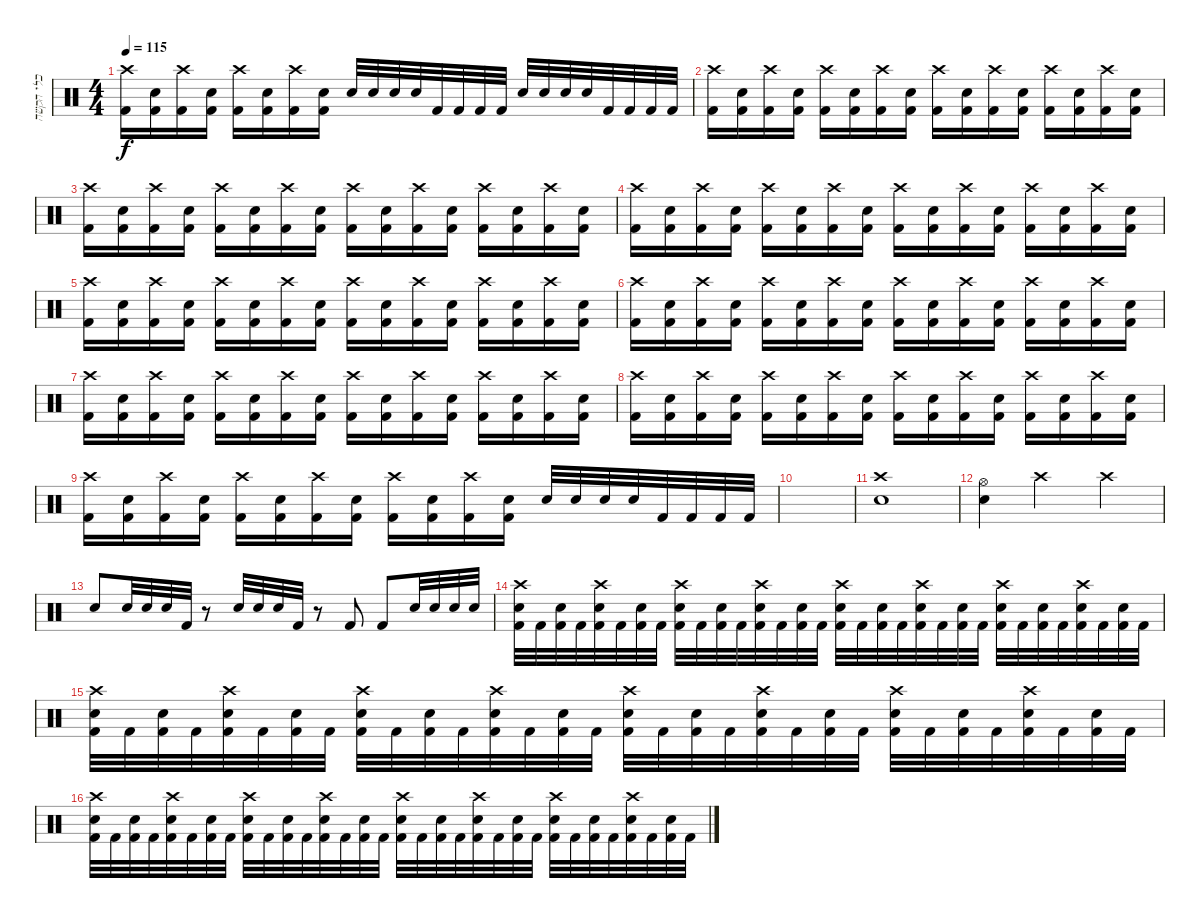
\track ("כלי הקשה" "כלי הקשה") {instrument percussion}
\staff {score}
\articulation defaults
\ts (4 4)
\tempo 115
\clef neutral
\ks c
("Crash high (hit)" "Kick (hit) 2").16{dy f} ("Snare (hit) 2" "Kick (hit) 2").16 ("Crash high (hit)" "Kick (hit) 2").16 ("Snare (hit) 2" "Kick (hit) 2").16 ("Crash high (hit)" "Kick (hit) 2").16 ("Snare (hit) 2" "Kick (hit) 2").16 ("Crash high (hit)" "Kick (hit) 2").16 ("Snare (hit) 2" "Kick (hit) 2").16 "Snare (hit) 2".32 "Snare (hit) 2".32 "Snare (hit) 2".32 "Snare (hit) 2".32 "Kick (hit) 2".32 "Kick (hit) 2".32 "Kick (hit) 2".32 "Kick (hit) 2".32 "Snare (hit) 2".32 "Snare (hit) 2".32 "Snare (hit) 2".32 "Snare (hit) 2".32 "Kick (hit) 2".32 "Kick (hit) 2".32 "Kick (hit) 2".32 "Kick (hit) 2".32 |
("Crash high (hit)" "Kick (hit) 2").16 ("Snare (hit) 2" "Kick (hit) 2").16 ("Crash high (hit)" "Kick (hit) 2").16 ("Snare (hit) 2" "Kick (hit) 2").16 ("Crash high (hit)" "Kick (hit) 2").16 ("Snare (hit) 2" "Kick (hit) 2").16 ("Crash high (hit)" "Kick (hit) 2").16 ("Snare (hit) 2" "Kick (hit) 2").16 ("Crash high (hit)" "Kick (hit) 2").16 ("Snare (hit) 2" "Kick (hit) 2").16 ("Crash high (hit)" "Kick (hit) 2").16 ("Snare (hit) 2" "Kick (hit) 2").16 ("Crash high (hit)" "Kick (hit) 2").16 ("Snare (hit) 2" "Kick (hit) 2").16 ("Crash high (hit)" "Kick (hit) 2").16 ("Snare (hit) 2" "Kick (hit) 2").16 |
("Crash high (hit)" "Kick (hit) 2").16 ("Snare (hit) 2" "Kick (hit) 2").16 ("Crash high (hit)" "Kick (hit) 2").16 ("Snare (hit) 2" "Kick (hit) 2").16 ("Crash high (hit)" "Kick (hit) 2").16 ("Snare (hit) 2" "Kick (hit) 2").16 ("Crash high (hit)" "Kick (hit) 2").16 ("Snare (hit) 2" "Kick (hit) 2").16 ("Crash high (hit)" "Kick (hit) 2").16 ("Snare (hit) 2" "Kick (hit) 2").16 ("Crash high (hit)" "Kick (hit) 2").16 ("Snare (hit) 2" "Kick (hit) 2").16 ("Crash high (hit)" "Kick (hit) 2").16 ("Snare (hit) 2" "Kick (hit) 2").16 ("Crash high (hit)" "Kick (hit) 2").16 ("Snare (hit) 2" "Kick (hit) 2").16 |
("Crash high (hit)" "Kick (hit) 2").16 ("Snare (hit) 2" "Kick (hit) 2").16 ("Crash high (hit)" "Kick (hit) 2").16 ("Snare (hit) 2" "Kick (hit) 2").16 ("Crash high (hit)" "Kick (hit) 2").16 ("Snare (hit) 2" "Kick (hit) 2").16 ("Crash high (hit)" "Kick (hit) 2").16 ("Snare (hit) 2" "Kick (hit) 2").16 ("Crash high (hit)" "Kick (hit) 2").16 ("Snare (hit) 2" "Kick (hit) 2").16 ("Crash high (hit)" "Kick (hit) 2").16 ("Snare (hit) 2" "Kick (hit) 2").16 ("Crash high (hit)" "Kick (hit) 2").16 ("Snare (hit) 2" "Kick (hit) 2").16 ("Crash high (hit)" "Kick (hit) 2").16 ("Snare (hit) 2" "Kick (hit) 2").16 |
("Crash high (hit)" "Kick (hit) 2").16 ("Snare (hit) 2" "Kick (hit) 2").16 ("Crash high (hit)" "Kick (hit) 2").16 ("Snare (hit) 2" "Kick (hit) 2").16 ("Crash high (hit)" "Kick (hit) 2").16 ("Snare (hit) 2" "Kick (hit) 2").16 ("Crash high (hit)" "Kick (hit) 2").16 ("Snare (hit) 2" "Kick (hit) 2").16 ("Crash high (hit)" "Kick (hit) 2").16 ("Snare (hit) 2" "Kick (hit) 2").16 ("Crash high (hit)" "Kick (hit) 2").16 ("Snare (hit) 2" "Kick (hit) 2").16 ("Crash high (hit)" "Kick (hit) 2").16 ("Snare (hit) 2" "Kick (hit) 2").16 ("Crash high (hit)" "Kick (hit) 2").16 ("Snare (hit) 2" "Kick (hit) 2").16 |
("Crash high (hit)" "Kick (hit) 2").16 ("Snare (hit) 2" "Kick (hit) 2").16 ("Crash high (hit)" "Kick (hit) 2").16 ("Snare (hit) 2" "Kick (hit) 2").16 ("Crash high (hit)" "Kick (hit) 2").16 ("Snare (hit) 2" "Kick (hit) 2").16 ("Crash high (hit)" "Kick (hit) 2").16 ("Snare (hit) 2" "Kick (hit) 2").16 ("Crash high (hit)" "Kick (hit) 2").16 ("Snare (hit) 2" "Kick (hit) 2").16 ("Crash high (hit)" "Kick (hit) 2").16 ("Snare (hit) 2" "Kick (hit) 2").16 ("Crash high (hit)" "Kick (hit) 2").16 ("Snare (hit) 2" "Kick (hit) 2").16 ("Crash high (hit)" "Kick (hit) 2").16 ("Snare (hit) 2" "Kick (hit) 2").16 |
("Crash high (hit)" "Kick (hit) 2").16 ("Snare (hit) 2" "Kick (hit) 2").16 ("Crash high (hit)" "Kick (hit) 2").16 ("Snare (hit) 2" "Kick (hit) 2").16 ("Crash high (hit)" "Kick (hit) 2").16 ("Snare (hit) 2" "Kick (hit) 2").16 ("Crash high (hit)" "Kick (hit) 2").16 ("Snare (hit) 2" "Kick (hit) 2").16 ("Crash high (hit)" "Kick (hit) 2").16 ("Snare (hit) 2" "Kick (hit) 2").16 ("Crash high (hit)" "Kick (hit) 2").16 ("Snare (hit) 2" "Kick (hit) 2").16 ("Crash high (hit)" "Kick (hit) 2").16 ("Snare (hit) 2" "Kick (hit) 2").16 ("Crash high (hit)" "Kick (hit) 2").16 ("Snare (hit) 2" "Kick (hit) 2").16 |
("Crash high (hit)" "Kick (hit) 2").16 ("Snare (hit) 2" "Kick (hit) 2").16 ("Crash high (hit)" "Kick (hit) 2").16 ("Snare (hit) 2" "Kick (hit) 2").16 ("Crash high (hit)" "Kick (hit) 2").16 ("Snare (hit) 2" "Kick (hit) 2").16 ("Crash high (hit)" "Kick (hit) 2").16 ("Snare (hit) 2" "Kick (hit) 2").16 ("Crash high (hit)" "Kick (hit) 2").16 ("Snare (hit) 2" "Kick (hit) 2").16 ("Crash high (hit)" "Kick (hit) 2").16 ("Snare (hit) 2" "Kick (hit) 2").16 ("Crash high (hit)" "Kick (hit) 2").16 ("Snare (hit) 2" "Kick (hit) 2").16 ("Crash high (hit)" "Kick (hit) 2").16 ("Snare (hit) 2" "Kick (hit) 2").16 |
("Crash high (hit)" "Kick (hit) 2").16 ("Snare (hit) 2" "Kick (hit) 2").16 ("Crash high (hit)" "Kick (hit) 2").16 ("Snare (hit) 2" "Kick (hit) 2").16 ("Crash high (hit)" "Kick (hit) 2").16 ("Snare (hit) 2" "Kick (hit) 2").16 ("Crash high (hit)" "Kick (hit) 2").16 ("Snare (hit) 2" "Kick (hit) 2").16 ("Crash high (hit)" "Kick (hit) 2").16 ("Snare (hit) 2" "Kick (hit) 2").16 ("Crash high (hit)" "Kick (hit) 2").16 ("Snare (hit) 2" "Kick (hit) 2").16 "Snare (hit) 2".32 "Snare (hit) 2".32 "Snare (hit) 2".32 "Snare (hit) 2".32 "Kick (hit) 2".32 "Kick (hit) 2".32 "Kick (hit) 2".32 "Kick (hit) 2".32 |
|
("Crash high (hit)" "Snare (hit) 2").1 |
("Hi-Hat (open)" "Snare (hit) 2").4 "Crash high (hit)".2 "Crash high (hit)".4 |
"Snare (hit) 2".8 "Snare (hit) 2".32 "Snare (hit) 2".32 "Snare (hit) 2".32 "Kick (hit) 2".32 r.8 "Snare (hit) 2".32 "Snare (hit) 2".32 "Snare (hit) 2".32 "Kick (hit) 2".32 r.8 "Kick (hit) 2".8 "Kick (hit) 2".8 "Snare (hit) 2".32 "Snare (hit) 2".32 "Snare (hit) 2".32 "Snare (hit) 2".32 |
("Crash high (hit)" "Snare (hit) 2" "Kick (hit) 2").32 "Kick (hit) 2".32 ("Snare (hit) 2" "Kick (hit) 2").32 "Kick (hit) 2".32 ("Crash high (hit)" "Snare (hit) 2" "Kick (hit) 2").32 "Kick (hit) 2".32 ("Snare (hit) 2" "Kick (hit) 2").32 "Kick (hit) 2".32 ("Crash high (hit)" "Snare (hit) 2" "Kick (hit) 2").32 "Kick (hit) 2".32 ("Snare (hit) 2" "Kick (hit) 2").32 "Kick (hit) 2".32 ("Crash high (hit)" "Snare (hit) 2" "Kick (hit) 2").32 "Kick (hit) 2".32 ("Snare (hit) 2" "Kick (hit) 2").32 "Kick (hit) 2".32 ("Crash high (hit)" "Snare (hit) 2" "Kick (hit) 2").32 "Kick (hit) 2".32 ("Snare (hit) 2" "Kick (hit) 2").32 "Kick (hit) 2".32 ("Crash high (hit)" "Snare (hit) 2" "Kick (hit) 2").32 "Kick (hit) 2".32 ("Snare (hit) 2" "Kick (hit) 2").32 "Kick (hit) 2".32 ("Crash high (hit)" "Snare (hit) 2" "Kick (hit) 2").32 "Kick (hit) 2".32 ("Snare (hit) 2" "Kick (hit) 2").32 "Kick (hit) 2".32 ("Crash high (hit)" "Snare (hit) 2" "Kick (hit) 2").32 "Kick (hit) 2".32 ("Snare (hit) 2" "Kick (hit) 2").32 "Kick (hit) 2".32 |
("Crash high (hit)" "Snare (hit) 2" "Kick (hit) 2").32 "Kick (hit) 2".32 ("Snare (hit) 2" "Kick (hit) 2").32 "Kick (hit) 2".32 ("Crash high (hit)" "Snare (hit) 2" "Kick (hit) 2").32 "Kick (hit) 2".32 ("Snare (hit) 2" "Kick (hit) 2").32 "Kick (hit) 2".32 ("Crash high (hit)" "Snare (hit) 2" "Kick (hit) 2").32 "Kick (hit) 2".32 ("Snare (hit) 2" "Kick (hit) 2").32 "Kick (hit) 2".32 ("Crash high (hit)" "Snare (hit) 2" "Kick (hit) 2").32 "Kick (hit) 2".32 ("Snare (hit) 2" "Kick (hit) 2").32 "Kick (hit) 2".32 ("Crash high (hit)" "Snare (hit) 2" "Kick (hit) 2").32 "Kick (hit) 2".32 ("Snare (hit) 2" "Kick (hit) 2").32 "Kick (hit) 2".32 ("Crash high (hit)" "Snare (hit) 2" "Kick (hit) 2").32 "Kick (hit) 2".32 ("Snare (hit) 2" "Kick (hit) 2").32 "Kick (hit) 2".32 ("Crash high (hit)" "Snare (hit) 2" "Kick (hit) 2").32 "Kick (hit) 2".32 ("Snare (hit) 2" "Kick (hit) 2").32 "Kick (hit) 2".32 ("Crash high (hit)" "Snare (hit) 2" "Kick (hit) 2").32 "Kick (hit) 2".32 ("Snare (hit) 2" "Kick (hit) 2").32 "Kick (hit) 2".32 |
("Crash high (hit)" "Snare (hit) 2" "Kick (hit) 2").32 "Kick (hit) 2".32 ("Snare (hit) 2" "Kick (hit) 2").32 "Kick (hit) 2".32 ("Crash high (hit)" "Snare (hit) 2" "Kick (hit) 2").32 "Kick (hit) 2".32 ("Snare (hit) 2" "Kick (hit) 2").32 "Kick (hit) 2".32 ("Crash high (hit)" "Snare (hit) 2" "Kick (hit) 2").32 "Kick (hit) 2".32 ("Snare (hit) 2" "Kick (hit) 2").32 "Kick (hit) 2".32 ("Crash high (hit)" "Snare (hit) 2" "Kick (hit) 2").32 "Kick (hit) 2".32 ("Snare (hit) 2" "Kick (hit) 2").32 "Kick (hit) 2".32 ("Crash high (hit)" "Snare (hit) 2" "Kick (hit) 2").32 "Kick (hit) 2".32 ("Snare (hit) 2" "Kick (hit) 2").32 "Kick (hit) 2".32 ("Crash high (hit)" "Snare (hit) 2" "Kick (hit) 2").32 "Kick (hit) 2".32 ("Snare (hit) 2" "Kick (hit) 2").32 "Kick (hit) 2".32 ("Crash high (hit)" "Snare (hit) 2" "Kick (hit) 2").32 "Kick (hit) 2".32 ("Snare (hit) 2" "Kick (hit) 2").32 "Kick (hit) 2".32 ("Crash high (hit)" "Snare (hit) 2" "Kick (hit) 2").32 "Kick (hit) 2".32 ("Snare (hit) 2" "Kick (hit) 2").32 "Kick (hit) 2".32
